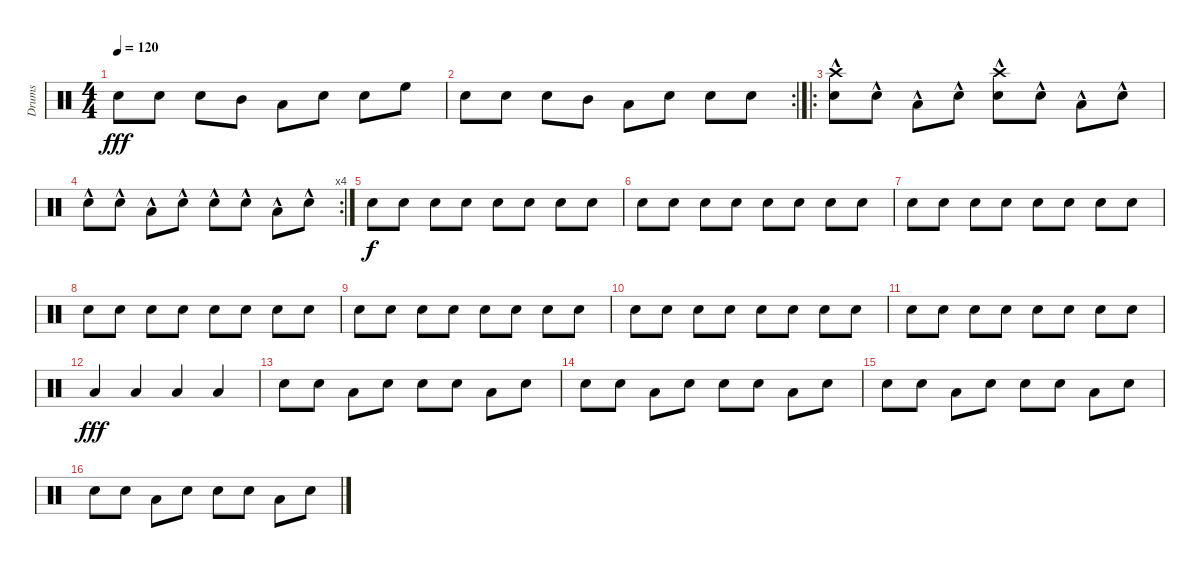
\track ("Drums" "Drums") {instrument percussion}
\staff {score}
\articulation defaults
\ts (4 4)
\tempo 120
\clef neutral
\ks c "Snare (hit)".8{dy fff} "Snare (hit)".8 "Snare (hit)".8 "Mid Tom (hit)".8 "Low Tom (hit)".8 "Snare (hit)".8 "Snare (hit)".8 "High Floor Tom (hit)".8
|
\rc 2 "Snare (hit)".8 "Snare (hit)".8 "Snare (hit)".8 "Mid Tom (hit)".8 "Low Tom (hit)".8 "Snare (hit)".8 "Snare (hit)".8 "Snare (hit)".8
|
\ro
("Crash high (hit)" "Snare (hit)"{hac}).8 "Snare (hit)"{hac}.8 "Low Tom (hit)"{hac}.8 "Snare (hit)"{hac}.8 ("Crash high (hit)"{hac} "Snare (hit)"{hac}).8 "Snare (hit)"{hac}.8 "Low Tom (hit)"{hac}.8 "Snare (hit)"{hac}.8 |
\rc 4 "Snare (hit)"{hac}.8 "Snare (hit)"{hac}.8 "Low Tom (hit)"{hac}.8 "Snare (hit)"{hac}.8 "Snare (hit)"{hac}.8 "Snare (hit)"{hac}.8 "Low Tom (hit)"{hac}.8 "Snare (hit)"{hac}.8
|
"Snare (hit)".8{dy f} "Snare (hit)".8 "Snare (hit) 2".8 "Snare (hit)".8 "Snare (hit)".8 "Snare (hit)".8 "Snare (hit) 2".8 "Snare (hit)".8 |
"Snare (hit)".8 "Snare (hit)".8 "Snare (hit) 2".8 "Snare (hit)".8 "Snare (hit)".8 "Snare (hit)".8 "Snare (hit) 2".8 "Snare (hit)".8 |
"Snare (hit)".8 "Snare (hit)".8 "Snare (hit) 2".8 "Snare (hit)".8 "Snare (hit)".8 "Snare (hit)".8 "Snare (hit) 2".8 "Snare (hit)".8 |
"Snare (hit)".8 "Snare (hit)".8 "Snare (hit) 2".8 "Snare (hit)".8 "Snare (hit)".8 "Snare (hit)".8 "Snare (hit) 2".8 "Snare (hit)".8 |
"Snare (hit)".8 "Snare (hit)".8 "Snare (hit) 2".8 "Snare (hit)".8 "Snare (hit)".8 "Snare (hit)".8 "Snare (hit) 2".8 "Snare (hit)".8 |
"Snare (hit)".8 "Snare (hit)".8 "Snare (hit) 2".8 "Snare (hit)".8 "Snare (hit)".8 "Snare (hit)".8 "Snare (hit) 2".8 "Snare (hit)".8 |
"Snare (hit)".8 "Snare (hit)".8 "Snare (hit) 2".8 "Snare (hit)".8 "Snare (hit)".8 "Snare (hit)".8 "Snare (hit) 2".8 "Snare (hit)".8 |
"Low Tom (hit)".4{dy fff} "Low Tom (hit)".4 "Low Tom (hit)".4 "Low Tom (hit)".4 |
"Snare (hit)".8 "Snare (hit)".8 "Low Tom (hit)".8 "Snare (hit)".8 "Snare (hit)".8 "Snare (hit)".8 "Low Tom (hit)".8 "Snare (hit)".8 |
"Snare (hit)".8 "Snare (hit)".8 "Low Tom (hit)".8 "Snare (hit)".8 "Snare (hit)".8 "Snare (hit)".8 "Low Tom (hit)".8 "Snare (hit)".8 |
"Snare (hit)".8 "Snare (hit)".8 "Low Tom (hit)".8 "Snare (hit)".8 "Snare (hit)".8 "Snare (hit)".8 "Low Tom (hit)".8 "Snare (hit)".8 |
"Snare (hit)".8 "Snare (hit)".8 "Low Tom (hit)".8 "Snare (hit)".8 "Snare (hit)".8 "Snare (hit)".8 "Low Tom (hit)".8 "Snare (hit)".8
